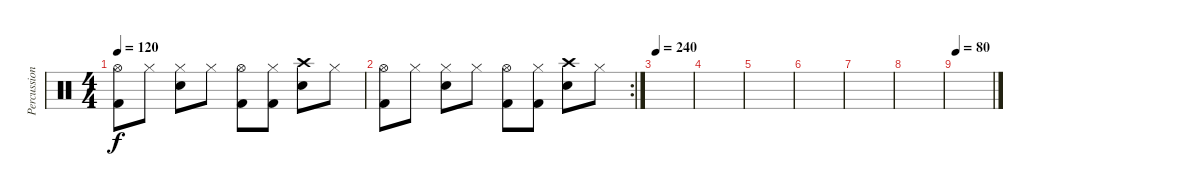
\track ("Percussion" "Percussion") {instrument percussion}
\staff {score}
\articulation defaults
\ts (4 4)
\tempo 120
\clef neutral
\ks c
("Hi-Hat (open)" "Kick (hit) 2").8{dy f} "Hi-Hat (closed)".8 ("Hi-Hat (closed)" "Electric Snare (hit)").8 "Hi-Hat (closed)".8 ("Hi-Hat (open)" "Kick (hit) 2").8 ("Hi-Hat (closed)" "Kick (hit) 2").8 ("Crash high (hit)" "Electric Snare (hit)").8 "Hi-Hat (closed)".8 |
\rc 2
("Hi-Hat (open)" "Kick (hit) 2").8 "Hi-Hat (closed)".8 ("Hi-Hat (closed)" "Electric Snare (hit)").8 "Hi-Hat (closed)".8 ("Hi-Hat (open)" "Kick (hit) 2").8 ("Hi-Hat (closed)" "Kick (hit) 2").8 ("Crash high (hit)" "Electric Snare (hit)").8 "Hi-Hat (closed)".8 |
\tempo 240
|
|
|
|
|
|
\tempo 80
